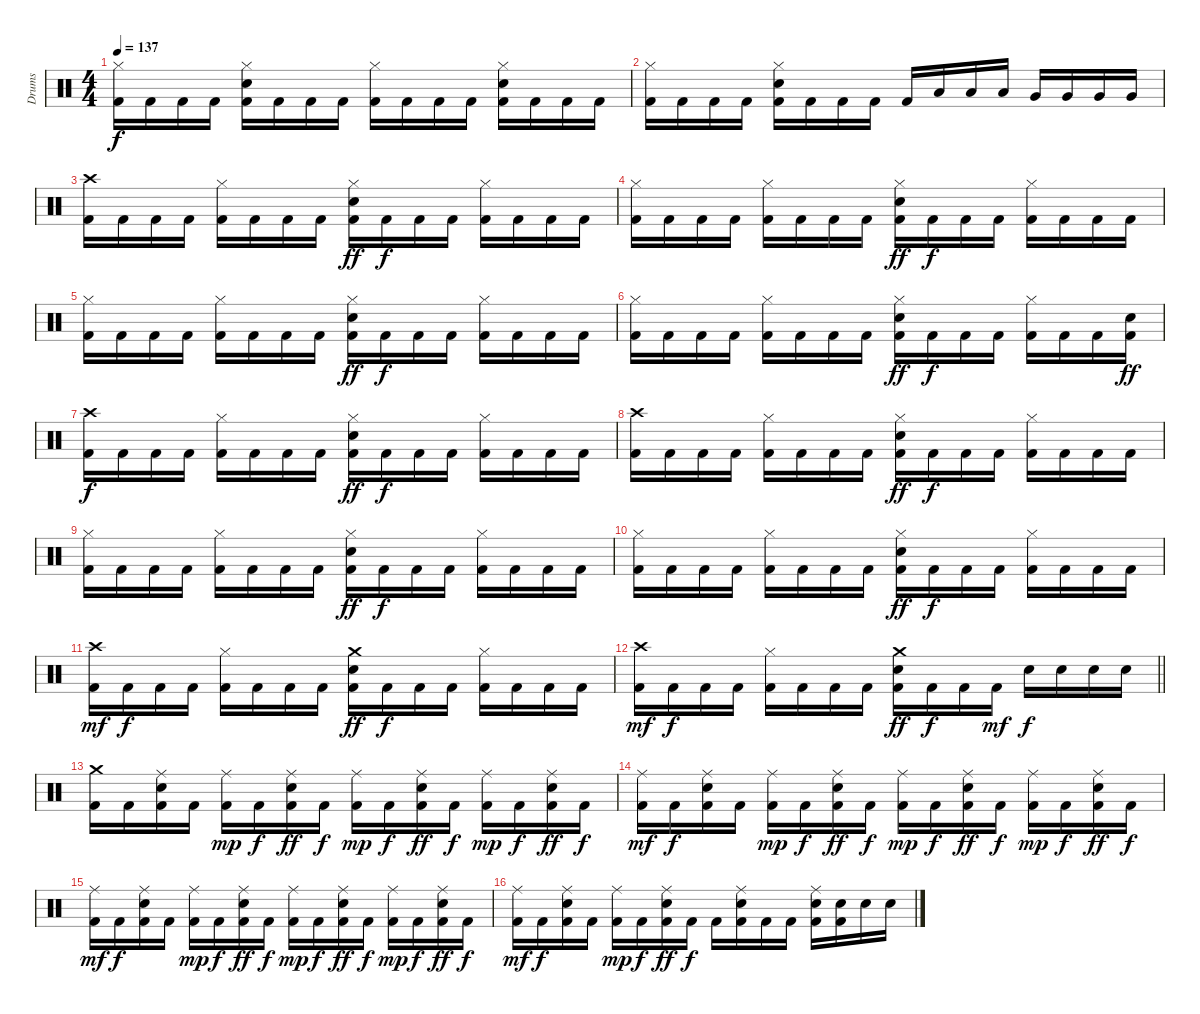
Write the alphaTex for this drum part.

\track ("Drums" "Drums") {instrument percussion}
\staff {score}
\articulation defaults
\ts (4 4)
\tempo 137
\clef neutral
\ks c
("Hi-Hat (closed)" "Kick (hit) 2").16{dy f} "Kick (hit) 2".16 "Kick (hit) 2".16 "Kick (hit) 2".16 ("Hi-Hat (closed)" "Electric Snare (hit)" "Kick (hit) 2").16 "Kick (hit) 2".16 "Kick (hit) 2".16 "Kick (hit) 2".16 ("Hi-Hat (closed)" "Kick (hit) 2").16 "Kick (hit) 2".16 "Kick (hit) 2".16 "Kick (hit) 2".16 ("Hi-Hat (closed)" "Electric Snare (hit)" "Kick (hit) 2").16 "Kick (hit) 2".16 "Kick (hit) 2".16 "Kick (hit) 2".16 |
("Hi-Hat (closed)" "Kick (hit) 2").16 "Kick (hit) 2".16 "Kick (hit) 2".16 "Kick (hit) 2".16 ("Hi-Hat (closed)" "Electric Snare (hit)" "Kick (hit) 2").16 "Kick (hit) 2".16 "Kick (hit) 2".16 "Kick (hit) 2".16 "Kick (hit) 2".16 "Low Tom (hit)".16 "Low Tom (hit)".16 "Low Tom (hit)".16 "Very Low Tom (hit)".16 "Very Low Tom (hit)".16 "Very Low Tom (hit)".16 "Very Low Tom (hit)".16 |
("Crash high (hit)" "Kick (hit) 2").16 "Kick (hit) 2".16 "Kick (hit) 2".16 "Kick (hit) 2".16 ("Hi-Hat (closed)" "Kick (hit) 2").16 "Kick (hit) 2".16 "Kick (hit) 2".16 "Kick (hit) 2".16 ("Hi-Hat (closed)" "Electric Snare (hit)" "Kick (hit) 2").16{dy ff} "Kick (hit) 2".16{dy f} "Kick (hit) 2".16 "Kick (hit) 2".16 ("Hi-Hat (closed)" "Kick (hit) 2").16 "Kick (hit) 2".16 "Kick (hit) 2".16 "Kick (hit) 2".16 |
("Hi-Hat (closed)" "Kick (hit) 2").16 "Kick (hit) 2".16 "Kick (hit) 2".16 "Kick (hit) 2".16 ("Hi-Hat (closed)" "Kick (hit) 2").16 "Kick (hit) 2".16 "Kick (hit) 2".16 "Kick (hit) 2".16 ("Hi-Hat (closed)" "Electric Snare (hit)" "Kick (hit) 2").16{dy ff} "Kick (hit) 2".16{dy f} "Kick (hit) 2".16 "Kick (hit) 2".16 ("Hi-Hat (closed)" "Kick (hit) 2").16 "Kick (hit) 2".16 "Kick (hit) 2".16 "Kick (hit) 2".16 |
("Hi-Hat (closed)" "Kick (hit) 2").16 "Kick (hit) 2".16 "Kick (hit) 2".16 "Kick (hit) 2".16 ("Hi-Hat (closed)" "Kick (hit) 2").16 "Kick (hit) 2".16 "Kick (hit) 2".16 "Kick (hit) 2".16 ("Hi-Hat (closed)" "Electric Snare (hit)" "Kick (hit) 2").16{dy ff} "Kick (hit) 2".16{dy f} "Kick (hit) 2".16 "Kick (hit) 2".16 ("Hi-Hat (closed)" "Kick (hit) 2").16 "Kick (hit) 2".16 "Kick (hit) 2".16 "Kick (hit) 2".16 |
("Hi-Hat (closed)" "Kick (hit) 2").16 "Kick (hit) 2".16 "Kick (hit) 2".16 "Kick (hit) 2".16 ("Hi-Hat (closed)" "Kick (hit) 2").16 "Kick (hit) 2".16 "Kick (hit) 2".16 "Kick (hit) 2".16 ("Hi-Hat (closed)" "Electric Snare (hit)" "Kick (hit) 2").16{dy ff} "Kick (hit) 2".16{dy f} "Kick (hit) 2".16 "Kick (hit) 2".16 ("Hi-Hat (closed)" "Kick (hit) 2").16 "Kick (hit) 2".16 "Kick (hit) 2".16 ("Electric Snare (hit)" "Kick (hit) 2").16{dy ff} |
("Crash high (hit)" "Kick (hit) 2").16{dy f} "Kick (hit) 2".16 "Kick (hit) 2".16 "Kick (hit) 2".16 ("Hi-Hat (closed)" "Kick (hit) 2").16 "Kick (hit) 2".16 "Kick (hit) 2".16 "Kick (hit) 2".16 ("Hi-Hat (closed)" "Electric Snare (hit)" "Kick (hit) 2").16{dy ff} "Kick (hit) 2".16{dy f} "Kick (hit) 2".16 "Kick (hit) 2".16 ("Hi-Hat (closed)" "Kick (hit) 2").16 "Kick (hit) 2".16 "Kick (hit) 2".16 "Kick (hit) 2".16 |
("Crash high (hit)" "Kick (hit) 2").16 "Kick (hit) 2".16 "Kick (hit) 2".16 "Kick (hit) 2".16 ("Hi-Hat (closed)" "Kick (hit) 2").16 "Kick (hit) 2".16 "Kick (hit) 2".16 "Kick (hit) 2".16 ("Hi-Hat (closed)" "Electric Snare (hit)" "Kick (hit) 2").16{dy ff} "Kick (hit) 2".16{dy f} "Kick (hit) 2".16 "Kick (hit) 2".16 ("Hi-Hat (closed)" "Kick (hit) 2").16 "Kick (hit) 2".16 "Kick (hit) 2".16 "Kick (hit) 2".16 |
("Hi-Hat (closed)" "Kick (hit) 2").16 "Kick (hit) 2".16 "Kick (hit) 2".16 "Kick (hit) 2".16 ("Hi-Hat (closed)" "Kick (hit) 2").16 "Kick (hit) 2".16 "Kick (hit) 2".16 "Kick (hit) 2".16 ("Hi-Hat (closed)" "Electric Snare (hit)" "Kick (hit) 2").16{dy ff} "Kick (hit) 2".16{dy f} "Kick (hit) 2".16 "Kick (hit) 2".16 ("Hi-Hat (closed)" "Kick (hit) 2").16 "Kick (hit) 2".16 "Kick (hit) 2".16 "Kick (hit) 2".16 |
("Hi-Hat (closed)" "Kick (hit) 2").16 "Kick (hit) 2".16 "Kick (hit) 2".16 "Kick (hit) 2".16 ("Hi-Hat (closed)" "Kick (hit) 2").16 "Kick (hit) 2".16 "Kick (hit) 2".16 "Kick (hit) 2".16 ("Hi-Hat (closed)" "Electric Snare (hit)" "Kick (hit) 2").16{dy ff} "Kick (hit) 2".16{dy f} "Kick (hit) 2".16 "Kick (hit) 2".16 ("Hi-Hat (closed)" "Kick (hit) 2").16 "Kick (hit) 2".16 "Kick (hit) 2".16 "Kick (hit) 2".16 |
("Crash high (hit)" "Kick (hit) 2").16{dy mf} "Kick (hit) 2".16{dy f} "Kick (hit) 2".16 "Kick (hit) 2".16 ("Hi-Hat (closed)" "Kick (hit) 2").16 "Kick (hit) 2".16 "Kick (hit) 2".16 "Kick (hit) 2".16 ("Crash medium (hit)" "Electric Snare (hit)" "Kick (hit) 2").16{dy ff} "Kick (hit) 2".16{dy f} "Kick (hit) 2".16 "Kick (hit) 2".16 ("Hi-Hat (closed)" "Kick (hit) 2").16 "Kick (hit) 2".16 "Kick (hit) 2".16 "Kick (hit) 2".16 |
\barLineRight lightlight
("Crash high (hit)" "Kick (hit) 2").16{dy mf} "Kick (hit) 2".16{dy f} "Kick (hit) 2".16 "Kick (hit) 2".16 ("Hi-Hat (closed)" "Kick (hit) 2").16 "Kick (hit) 2".16 "Kick (hit) 2".16 "Kick (hit) 2".16 ("Crash medium (hit)" "Electric Snare (hit)" "Kick (hit) 2").16{dy ff} "Kick (hit) 2".16{dy f} "Kick (hit) 2".16 "Kick (hit) 2".16{dy mf} "Electric Snare (hit)".16{dy f} "Electric Snare (hit)".16 "Electric Snare (hit)".16 "Electric Snare (hit)".16 |
\section ("" "")
("Crash medium (hit)" "Kick (hit) 2").16 "Kick (hit) 2".16 ("Ride (middle)" "Electric Snare (hit)" "Kick (hit) 2").16 "Kick (hit) 2".16 ("Ride (middle)" "Kick (hit) 2").16{dy mp} "Kick (hit) 2".16{dy f} ("Ride (middle)" "Electric Snare (hit)" "Kick (hit) 2").16{dy ff} "Kick (hit) 2".16{dy f} ("Ride (middle)" "Kick (hit) 2").16{dy mp} "Kick (hit) 2".16{dy f} ("Ride (middle)" "Electric Snare (hit)" "Kick (hit) 2").16{dy ff} "Kick (hit) 2".16{dy f} ("Ride (middle)" "Kick (hit) 2").16{dy mp} "Kick (hit) 2".16{dy f} ("Ride (middle)" "Electric Snare (hit)" "Kick (hit) 2").16{dy ff} "Kick (hit) 2".16{dy f} |
("Ride (middle)" "Kick (hit) 2").16{dy mf} "Kick (hit) 2".16{dy f} ("Ride (middle)" "Electric Snare (hit)" "Kick (hit) 2").16 "Kick (hit) 2".16 ("Ride (middle)" "Kick (hit) 2").16{dy mp} "Kick (hit) 2".16{dy f} ("Ride (middle)" "Electric Snare (hit)" "Kick (hit) 2").16{dy ff} "Kick (hit) 2".16{dy f} ("Ride (middle)" "Kick (hit) 2").16{dy mp} "Kick (hit) 2".16{dy f} ("Ride (middle)" "Electric Snare (hit)" "Kick (hit) 2").16{dy ff} "Kick (hit) 2".16{dy f} ("Ride (middle)" "Kick (hit) 2").16{dy mp} "Kick (hit) 2".16{dy f} ("Ride (middle)" "Electric Snare (hit)" "Kick (hit) 2").16{dy ff} "Kick (hit) 2".16{dy f} |
("Ride (middle)" "Kick (hit) 2").16{dy mf} "Kick (hit) 2".16{dy f} ("Ride (middle)" "Electric Snare (hit)" "Kick (hit) 2").16 "Kick (hit) 2".16 ("Ride (middle)" "Kick (hit) 2").16{dy mp} "Kick (hit) 2".16{dy f} ("Ride (middle)" "Electric Snare (hit)" "Kick (hit) 2").16{dy ff} "Kick (hit) 2".16{dy f} ("Ride (middle)" "Kick (hit) 2").16{dy mp} "Kick (hit) 2".16{dy f} ("Ride (middle)" "Electric Snare (hit)" "Kick (hit) 2").16{dy ff} "Kick (hit) 2".16{dy f} ("Ride (middle)" "Kick (hit) 2").16{dy mp} "Kick (hit) 2".16{dy f} ("Ride (middle)" "Electric Snare (hit)" "Kick (hit) 2").16{dy ff} "Kick (hit) 2".16{dy f} |
("Ride (middle)" "Kick (hit) 2").16{dy mf} "Kick (hit) 2".16{dy f} ("Ride (middle)" "Electric Snare (hit)" "Kick (hit) 2").16 "Kick (hit) 2".16 ("Ride (middle)" "Kick (hit) 2").16{dy mp} "Kick (hit) 2".16{dy f} ("Ride (middle)" "Electric Snare (hit)" "Kick (hit) 2").16{dy ff} "Kick (hit) 2".16{dy f} "Kick (hit) 2".16 ("Ride (middle)" "Electric Snare (hit)" "Kick (hit) 2").16 "Kick (hit) 2".16 "Kick (hit) 2".16 ("Ride (middle)" "Electric Snare (hit)" "Kick (hit) 2").16 ("Electric Snare (hit)" "Kick (hit) 2").16 "Electric Snare (hit)".16 "Electric Snare (hit)".16
